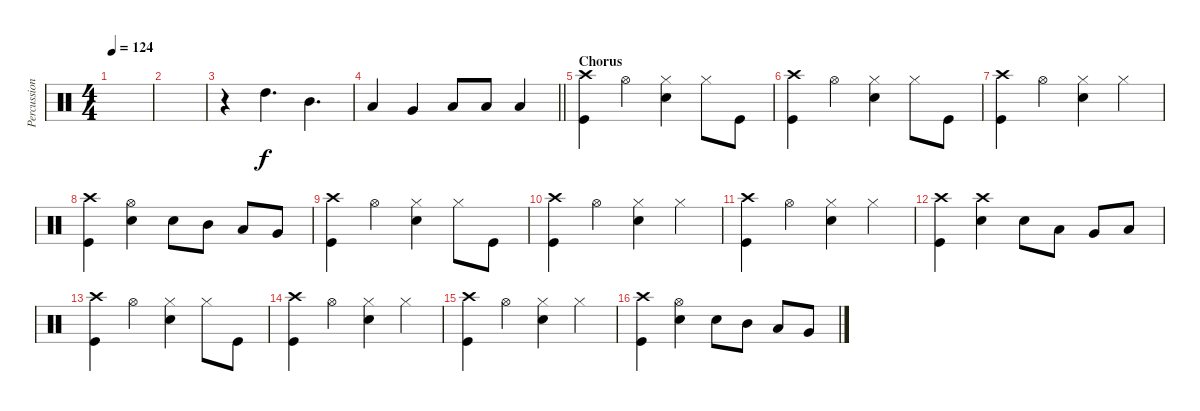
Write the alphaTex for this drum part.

\track ("Percussion" "Percussion") {instrument percussion}
\staff {score}
\articulation defaults
\ts (4 4)
\tempo 124
\clef neutral
\ks c
|
|
r.4 "High Tom (hit)".4{d} "Mid Tom (hit)".4{d} |
\barLineRight lightlight "Low Tom (hit)".4 "Very Low Tom (hit)".4 "Low Floor Tom (hit)".8 "Low Floor Tom (hit)".8 "Low Tom (hit)".4
|
\section ("" "Chorus")
("Crash high (hit)" "Kick (hit)").4 "Hi-Hat (open)".4 ("Snare (hit) 2" "Hi-Hat (closed)").4 "Hi-Hat (closed)".8 "Kick (hit)".8 |
("Crash high (hit)" "Kick (hit)").4 "Hi-Hat (open)".4 ("Snare (hit) 2" "Hi-Hat (closed)").4 "Hi-Hat (closed)".8 "Kick (hit)".8 |
("Crash high (hit)" "Kick (hit)").4 "Hi-Hat (open)".4 ("Snare (hit) 2" "Hi-Hat (closed)").4 "Hi-Hat (closed)".4 |
("Kick (hit)" "Crash high (hit)").4 ("Hi-Hat (open)" "Snare (hit) 2").4 "Snare (hit) 2".8 "Mid Tom (hit)".8 "Low Tom (hit)".8 "Very Low Tom (hit)".8 |
("Crash high (hit)" "Kick (hit)").4 "Hi-Hat (open)".4 ("Snare (hit) 2" "Hi-Hat (closed)").4 "Hi-Hat (closed)".8 "Kick (hit)".8 |
("Crash high (hit)" "Kick (hit)").4 "Hi-Hat (open)".4 ("Snare (hit) 2" "Hi-Hat (closed)").4 "Hi-Hat (closed)".4 |
("Crash high (hit)" "Kick (hit)").4 "Hi-Hat (open)".4 ("Snare (hit) 2" "Hi-Hat (closed)").4 "Hi-Hat (closed)".4 |
("Crash high (hit)" "Kick (hit)").4 ("Crash high (hit)" "Snare (hit) 2").4 "Snare (hit) 2".8 "Low Tom (hit)".8 "Very Low Tom (hit)".8 "Low Floor Tom (hit)".8 |
("Crash high (hit)" "Kick (hit)").4 "Hi-Hat (open)".4 ("Snare (hit) 2" "Hi-Hat (closed)").4 "Hi-Hat (closed)".8 "Kick (hit)".8 |
("Crash high (hit)" "Kick (hit)").4 "Hi-Hat (open)".4 ("Snare (hit) 2" "Hi-Hat (closed)").4 "Hi-Hat (closed)".4 |
("Crash high (hit)" "Kick (hit)").4 "Hi-Hat (open)".4 ("Snare (hit) 2" "Hi-Hat (closed)").4 "Hi-Hat (closed)".4 |
("Kick (hit)" "Crash high (hit)").4 ("Hi-Hat (open)" "Snare (hit) 2").4 "Snare (hit) 2".8 "Mid Tom (hit)".8 "Low Tom (hit)".8 "Very Low Tom (hit)".8
